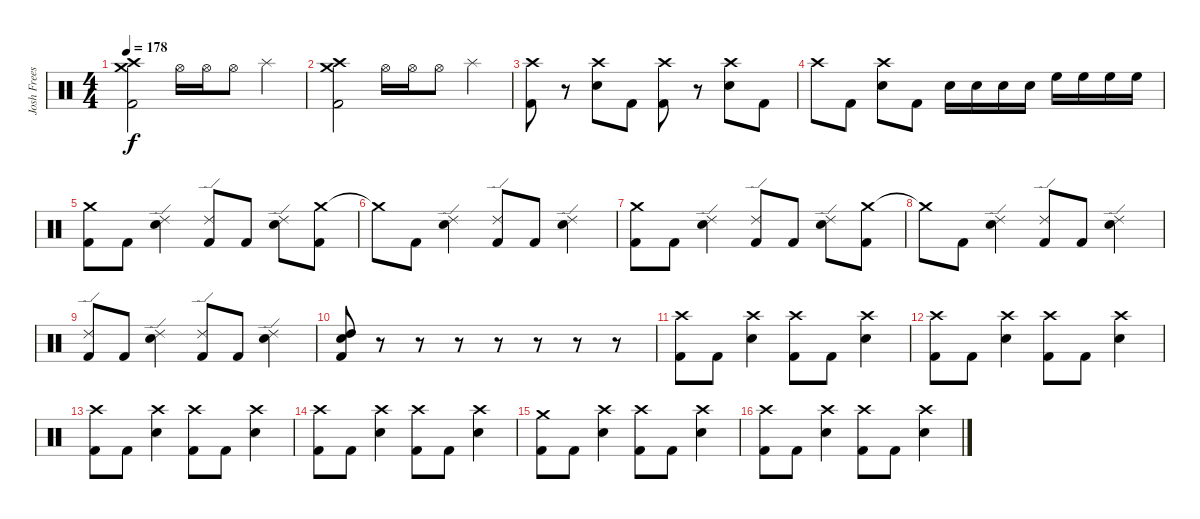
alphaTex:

\track ("Josh Freese" "Josh Frees") {instrument percussion}
\staff {score}
\articulation defaults
\ts (4 4)
\tempo 178
\clef neutral
\ks c
("Crash medium (hit)" "Crash high (hit)" "Kick (hit) 2").2{dy f} "Hi-Hat (open)".16 "Hi-Hat (open)".16 "Hi-Hat (open)".8 "Splash (hit)".4 |
("Crash medium (hit)" "Crash high (hit)" "Kick (hit) 2").2 "Hi-Hat (open)".16 "Hi-Hat (open)".16 "Hi-Hat (open)".8 "Splash (hit)".4 |
("Crash high (hit)" "Kick (hit) 2").8 r.8 ("Crash high (hit)" "Electric Snare (hit)").8 "Kick (hit) 2".8 ("Crash high (hit)" "Kick (hit) 2").8 r.8 ("Crash high (hit)" "Electric Snare (hit)").8 "Kick (hit) 2".8 |
"Crash high (hit)".8 "Kick (hit) 2".8 ("Crash high (hit)" "Electric Snare (hit)").8 "Kick (hit) 2".8 "Electric Snare (hit)".16 "Electric Snare (hit)".16 "Electric Snare (hit)".16 "Electric Snare (hit)".16 "High Floor Tom (hit)".16 "High Floor Tom (hit)".16 "High Floor Tom (hit)".16 "High Floor Tom (hit)".16 |
("Crash medium (hit)" "Kick (hit) 2").8 "Kick (hit) 2".8 ("Ride (edge) 2" "Electric Snare (hit)").4 ("Ride (edge) 2" "Kick (hit) 2").8 "Kick (hit) 2".8 ("Ride (edge) 2" "Electric Snare (hit)").8 ("Crash medium (hit)" "Kick (hit) 2").8 |
"Crash medium (hit)"{t}.8 "Kick (hit) 2".8 ("Ride (edge) 2" "Electric Snare (hit)").4 ("Ride (edge) 2" "Kick (hit) 2").8 "Kick (hit) 2".8 ("Ride (edge) 2" "Electric Snare (hit)").4 |
("Crash medium (hit)" "Kick (hit) 2").8 "Kick (hit) 2".8 ("Ride (edge) 2" "Electric Snare (hit)").4 ("Ride (edge) 2" "Kick (hit) 2").8 "Kick (hit) 2".8 ("Ride (edge) 2" "Electric Snare (hit)").8 ("Crash medium (hit)" "Kick (hit) 2").8 |
"Crash medium (hit)"{t}.8 "Kick (hit) 2".8 ("Ride (edge) 2" "Electric Snare (hit)").4 ("Ride (edge) 2" "Kick (hit) 2").8 "Kick (hit) 2".8 ("Ride (edge) 2" "Electric Snare (hit)").4 |
("Ride (edge) 2" "Kick (hit) 2").8 "Kick (hit) 2".8 ("Ride (edge) 2" "Electric Snare (hit)").4 ("Ride (edge) 2" "Kick (hit) 2").8 "Kick (hit) 2".8 ("Ride (edge) 2" "Electric Snare (hit)").4 |
("High Tom (hit)" "Electric Snare (hit)" "Kick (hit) 2").8 r.8 r.8 r.8 r.8 r.8 r.8 r.8 |
("Crash high (hit)" "Kick (hit) 2").8 "Kick (hit) 2".8 ("Crash high (hit)" "Electric Snare (hit)").4 ("Crash high (hit)" "Kick (hit) 2").8 "Kick (hit) 2".8 ("Crash high (hit)" "Electric Snare (hit)").4 |
("Crash high (hit)" "Kick (hit) 2").8 "Kick (hit) 2".8 ("Crash high (hit)" "Electric Snare (hit)").4 ("Crash high (hit)" "Kick (hit) 2").8 "Kick (hit) 2".8 ("Crash high (hit)" "Electric Snare (hit)").4 |
("Crash high (hit)" "Kick (hit) 2").8 "Kick (hit) 2".8 ("Crash high (hit)" "Electric Snare (hit)").4 ("Crash high (hit)" "Kick (hit) 2").8 "Kick (hit) 2".8 ("Crash high (hit)" "Electric Snare (hit)").4 |
("Crash high (hit)" "Kick (hit) 2").8 "Kick (hit) 2".8 ("Crash high (hit)" "Electric Snare (hit)").4 ("Crash high (hit)" "Kick (hit) 2").8 "Kick (hit) 2".8 ("Crash high (hit)" "Electric Snare (hit)").4 |
("Crash medium (hit)" "Kick (hit) 2").8 "Kick (hit) 2".8 ("Crash high (hit)" "Electric Snare (hit)").4 ("Crash high (hit)" "Kick (hit) 2").8 "Kick (hit) 2".8 ("Crash high (hit)" "Electric Snare (hit)").4 |
("Crash high (hit)" "Kick (hit) 2").8 "Kick (hit) 2".8 ("Crash high (hit)" "Electric Snare (hit)").4 ("Crash high (hit)" "Kick (hit) 2").8 "Kick (hit) 2".8 ("Crash high (hit)" "Electric Snare (hit)").4
